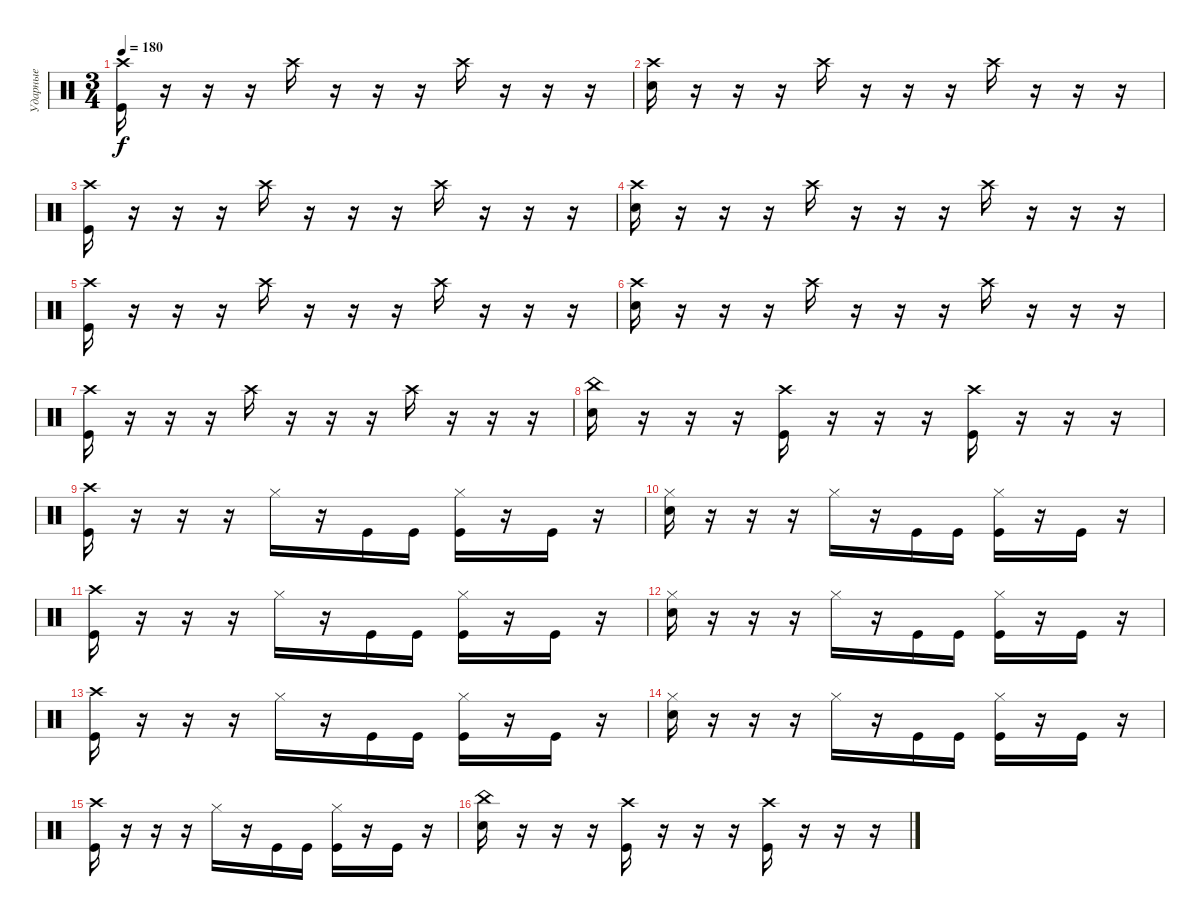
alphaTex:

\track ("Ударные" "Ударные") {instrument percussion}
\staff {score}
\articulation defaults
\ts (3 4)
\tempo 180
\clef neutral
\ks c
("Crash high (hit)" "Kick (hit)").16{dy f} r.16 r.16 r.16 "Crash high (hit)".16 r.16 r.16 r.16 "Crash high (hit)".16 r.16 r.16 r.16 |
("Crash high (hit)" "Electric Snare (hit)").16 r.16 r.16 r.16 "Crash high (hit)".16 r.16 r.16 r.16 "Crash high (hit)".16 r.16 r.16 r.16 |
("Crash high (hit)" "Kick (hit)").16 r.16 r.16 r.16 "Crash high (hit)".16 r.16 r.16 r.16 "Crash high (hit)".16 r.16 r.16 r.16 |
("Crash high (hit)" "Electric Snare (hit)").16 r.16 r.16 r.16 "Crash high (hit)".16 r.16 r.16 r.16 "Crash high (hit)".16 r.16 r.16 r.16 |
("Crash high (hit)" "Kick (hit)").16 r.16 r.16 r.16 "Crash high (hit)".16 r.16 r.16 r.16 "Crash high (hit)".16 r.16 r.16 r.16 |
("Crash high (hit)" "Electric Snare (hit)").16 r.16 r.16 r.16 "Crash high (hit)".16 r.16 r.16 r.16 "Crash high (hit)".16 r.16 r.16 r.16 |
("Crash high (hit)" "Kick (hit)").16 r.16 r.16 r.16 "Crash high (hit)".16 r.16 r.16 r.16 "Crash high (hit)".16 r.16 r.16 r.16 |
("China (hit)" "Electric Snare (hit)").16 r.16 r.16 r.16 ("Crash high (hit)" "Kick (hit)").16 r.16 r.16 r.16 ("Crash high (hit)" "Kick (hit)").16 r.16 r.16 r.16 |
("Crash high (hit)" "Kick (hit)").16 r.16 r.16 r.16 "Hi-Hat (closed)".16 r.16 "Kick (hit)".16 "Kick (hit)".16 ("Hi-Hat (closed)" "Kick (hit)").16 r.16 "Kick (hit)".16 r.16 |
("Hi-Hat (closed)" "Electric Snare (hit)").16 r.16 r.16 r.16 "Hi-Hat (closed)".16 r.16 "Kick (hit)".16 "Kick (hit)".16 ("Hi-Hat (closed)" "Kick (hit)").16 r.16 "Kick (hit)".16 r.16 |
("Crash high (hit)" "Kick (hit)").16 r.16 r.16 r.16 "Hi-Hat (closed)".16 r.16 "Kick (hit)".16 "Kick (hit)".16 ("Hi-Hat (closed)" "Kick (hit)").16 r.16 "Kick (hit)".16 r.16 |
("Hi-Hat (closed)" "Electric Snare (hit)").16 r.16 r.16 r.16 "Hi-Hat (closed)".16 r.16 "Kick (hit)".16 "Kick (hit)".16 ("Hi-Hat (closed)" "Kick (hit)").16 r.16 "Kick (hit)".16 r.16 |
("Crash high (hit)" "Kick (hit)").16 r.16 r.16 r.16 "Hi-Hat (closed)".16 r.16 "Kick (hit)".16 "Kick (hit)".16 ("Hi-Hat (closed)" "Kick (hit)").16 r.16 "Kick (hit)".16 r.16 |
("Hi-Hat (closed)" "Electric Snare (hit)").16 r.16 r.16 r.16 "Hi-Hat (closed)".16 r.16 "Kick (hit)".16 "Kick (hit)".16 ("Hi-Hat (closed)" "Kick (hit)").16 r.16 "Kick (hit)".16 r.16 |
("Crash high (hit)" "Kick (hit)").16 r.16 r.16 r.16 "Hi-Hat (closed)".16 r.16 "Kick (hit)".16 "Kick (hit)".16 ("Hi-Hat (closed)" "Kick (hit)").16 r.16 "Kick (hit)".16 r.16 |
("China (hit)" "Electric Snare (hit)").16 r.16 r.16 r.16 ("Crash high (hit)" "Kick (hit)").16 r.16 r.16 r.16 ("Crash high (hit)" "Kick (hit)").16 r.16 r.16 r.16
